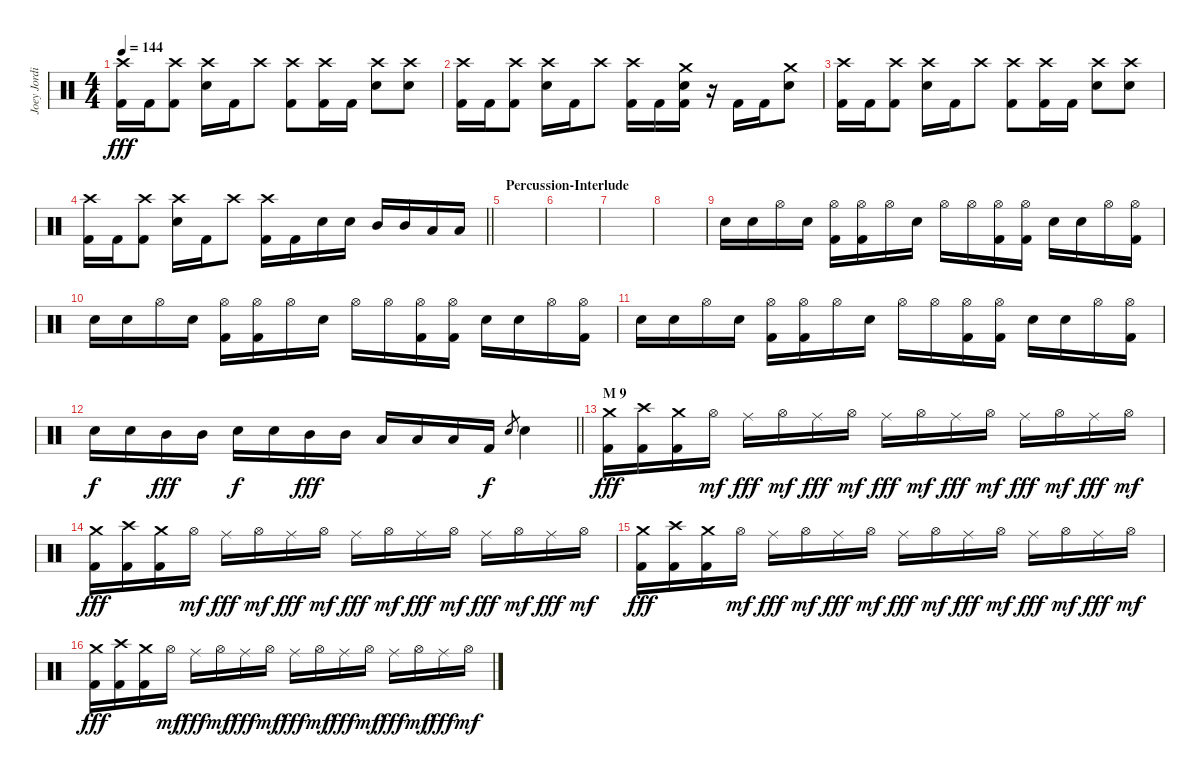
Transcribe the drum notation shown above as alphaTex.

\track ("Joey Jordison" "Joey Jordi") {instrument percussion}
\staff {score}
\articulation defaults
\ts (4 4)
\tempo 144
\clef neutral
\ks c
("Crash high (hit)" "Kick (hit) 2").16{dy fff} "Kick (hit) 2".16 ("Crash high (hit)" "Kick (hit) 2").8 ("Crash high (hit)" "Electric Snare (hit)").16 "Kick (hit) 2".16 "Crash high (hit)".8 ("Crash high (hit)" "Kick (hit) 2").8 ("Crash high (hit)" "Kick (hit) 2").16 "Kick (hit) 2".16 ("Crash high (hit)" "Electric Snare (hit)").8 ("Crash high (hit)" "Electric Snare (hit)").8 |
("Crash high (hit)" "Kick (hit) 2").16 "Kick (hit) 2".16 ("Crash high (hit)" "Kick (hit) 2").8 ("Crash high (hit)" "Electric Snare (hit)").16 "Kick (hit) 2".16 "Crash high (hit)".8 ("Crash high (hit)" "Kick (hit) 2").16 "Kick (hit) 2".16 ("Crash medium (hit)" "Electric Snare (hit)" "Kick (hit) 2").16 r.16 "Kick (hit) 2".16 "Kick (hit) 2".16 ("Crash medium (hit)" "Electric Snare (hit)").8 |
("Crash high (hit)" "Kick (hit) 2").16 "Kick (hit) 2".16 ("Crash high (hit)" "Kick (hit) 2").8 ("Crash high (hit)" "Electric Snare (hit)").16 "Kick (hit) 2".16 "Crash high (hit)".8 ("Crash high (hit)" "Kick (hit) 2").8 ("Crash high (hit)" "Kick (hit) 2").16 "Kick (hit) 2".16 ("Crash high (hit)" "Electric Snare (hit)").8 ("Crash high (hit)" "Electric Snare (hit)").8 |
\barLineRight lightlight
("Crash high (hit)" "Kick (hit) 2").16 "Kick (hit) 2".16 ("Crash high (hit)" "Kick (hit) 2").8 ("Crash high (hit)" "Electric Snare (hit)").16 "Kick (hit) 2".16 "Crash high (hit)".8 ("Crash high (hit)" "Kick (hit) 2").16 "Kick (hit) 2".16 "Electric Snare (hit)".16 "Electric Snare (hit)".16 "Mid Tom (hit)".16 "Mid Tom (hit)".16 "Low Tom (hit)".16 "Low Tom (hit)".16 |
\section ("" "Percussion-Interlude")
|
|
|
|
"Electric Snare (hit)".16 "Electric Snare (hit)".16 "Hi-Hat (open)".16 "Electric Snare (hit)".16 ("Hi-Hat (open)" "Kick (hit) 2").16 ("Hi-Hat (open)" "Kick (hit) 2").16 "Hi-Hat (open)".16 "Electric Snare (hit)".16 "Hi-Hat (open)".16 "Hi-Hat (open)".16 ("Hi-Hat (open)" "Kick (hit) 2").16 ("Hi-Hat (open)" "Kick (hit) 2").16 "Electric Snare (hit)".16 "Electric Snare (hit)".16 "Hi-Hat (open)".16 ("Hi-Hat (open)" "Kick (hit) 2").16 |
"Electric Snare (hit)".16 "Electric Snare (hit)".16 "Hi-Hat (open)".16 "Electric Snare (hit)".16 ("Hi-Hat (open)" "Kick (hit) 2").16 ("Hi-Hat (open)" "Kick (hit) 2").16 "Hi-Hat (open)".16 "Electric Snare (hit)".16 "Hi-Hat (open)".16 "Hi-Hat (open)".16 ("Hi-Hat (open)" "Kick (hit) 2").16 ("Hi-Hat (open)" "Kick (hit) 2").16 "Electric Snare (hit)".16 "Electric Snare (hit)".16 "Hi-Hat (open)".16 ("Hi-Hat (open)" "Kick (hit) 2").16 |
"Electric Snare (hit)".16 "Electric Snare (hit)".16 "Hi-Hat (open)".16 "Electric Snare (hit)".16 ("Hi-Hat (open)" "Kick (hit) 2").16 ("Hi-Hat (open)" "Kick (hit) 2").16 "Hi-Hat (open)".16 "Electric Snare (hit)".16 "Hi-Hat (open)".16 "Hi-Hat (open)".16 ("Hi-Hat (open)" "Kick (hit) 2").16 ("Hi-Hat (open)" "Kick (hit) 2").16 "Electric Snare (hit)".16 "Electric Snare (hit)".16 "Hi-Hat (open)".16 ("Hi-Hat (open)" "Kick (hit) 2").16 |
\barLineRight lightlight "Electric Snare (hit)".16{dy f} "Electric Snare (hit)".16 "Mid Tom (hit)".16{dy fff} "Mid Tom (hit)".16 "Electric Snare (hit)".16{dy f} "Electric Snare (hit)".16 "Mid Tom (hit)".16{dy fff} "Mid Tom (hit)".16 "Low Tom (hit)".16 "Low Tom (hit)".16 "Low Tom (hit)".16 "Kick (hit) 2".16{dy f} "Electric Snare (hit)".8{gr} "Electric Snare (hit)".4
|
\section ("" "M 9")
("Crash medium (hit)" "Kick (hit) 2").16{dy fff} ("Crash high (hit)" "Kick (hit) 2").16 ("Crash medium (hit)" "Kick (hit) 2").16 "Hi-Hat (open)".16{dy mf} "Ride (middle)".16{dy fff} "Hi-Hat (open)".16{dy mf} "Ride (middle)".16{dy fff} "Hi-Hat (open)".16{dy mf} "Ride (middle)".16{dy fff} "Hi-Hat (open)".16{dy mf} "Ride (middle)".16{dy fff} "Hi-Hat (open)".16{dy mf} "Ride (middle)".16{dy fff} "Hi-Hat (open)".16{dy mf} "Ride (middle)".16{dy fff} "Hi-Hat (open)".16{dy mf} |
("Crash medium (hit)" "Kick (hit) 2").16{dy fff} ("Crash high (hit)" "Kick (hit) 2").16 ("Crash medium (hit)" "Kick (hit) 2").16 "Hi-Hat (open)".16{dy mf} "Ride (middle)".16{dy fff} "Hi-Hat (open)".16{dy mf} "Ride (middle)".16{dy fff} "Hi-Hat (open)".16{dy mf} "Ride (middle)".16{dy fff} "Hi-Hat (open)".16{dy mf} "Ride (middle)".16{dy fff} "Hi-Hat (open)".16{dy mf} "Ride (middle)".16{dy fff} "Hi-Hat (open)".16{dy mf} "Ride (middle)".16{dy fff} "Hi-Hat (open)".16{dy mf} |
("Crash medium (hit)" "Kick (hit) 2").16{dy fff} ("Crash high (hit)" "Kick (hit) 2").16 ("Crash medium (hit)" "Kick (hit) 2").16 "Hi-Hat (open)".16{dy mf} "Ride (middle)".16{dy fff} "Hi-Hat (open)".16{dy mf} "Ride (middle)".16{dy fff} "Hi-Hat (open)".16{dy mf} "Ride (middle)".16{dy fff} "Hi-Hat (open)".16{dy mf} "Ride (middle)".16{dy fff} "Hi-Hat (open)".16{dy mf} "Ride (middle)".16{dy fff} "Hi-Hat (open)".16{dy mf} "Ride (middle)".16{dy fff} "Hi-Hat (open)".16{dy mf} |
("Crash medium (hit)" "Kick (hit) 2").16{dy fff} ("Crash high (hit)" "Kick (hit) 2").16 ("Crash medium (hit)" "Kick (hit) 2").16 "Hi-Hat (open)".16{dy mf} "Ride (middle)".16{dy fff} "Hi-Hat (open)".16{dy mf} "Ride (middle)".16{dy fff} "Hi-Hat (open)".16{dy mf} "Ride (middle)".16{dy fff} "Hi-Hat (open)".16{dy mf} "Ride (middle)".16{dy fff} "Hi-Hat (open)".16{dy mf} "Ride (middle)".16{dy fff} "Hi-Hat (open)".16{dy mf} "Ride (middle)".16{dy fff} "Hi-Hat (open)".16{dy mf}
